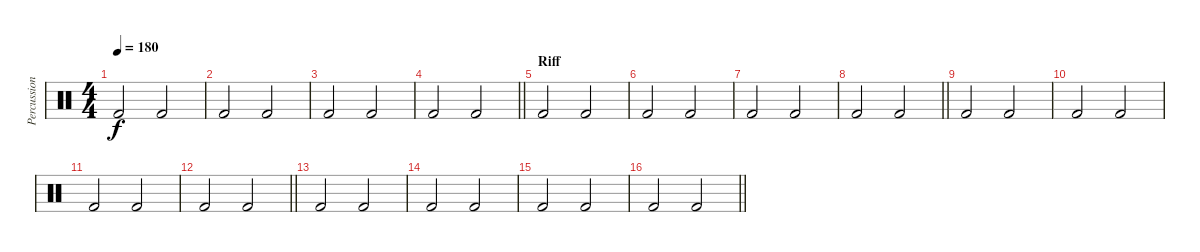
\track ("Percussion" "Percussion") {instrument percussion}
\staff {score}
\articulation defaults
\ts (4 4)
\tempo 180
\clef neutral
\ks c "Kick (hit) 2".2{dy f} "Kick (hit) 2".2
|
"Kick (hit) 2".2 "Kick (hit) 2".2 |
"Kick (hit) 2".2 "Kick (hit) 2".2 |
\barLineRight lightlight "Kick (hit) 2".2 "Kick (hit) 2".2
|
\section ("" "Riff")
"Kick (hit) 2".2 "Kick (hit) 2".2 |
"Kick (hit) 2".2 "Kick (hit) 2".2 |
"Kick (hit) 2".2 "Kick (hit) 2".2 |
\barLineRight lightlight "Kick (hit) 2".2 "Kick (hit) 2".2
|
"Kick (hit) 2".2 "Kick (hit) 2".2 |
"Kick (hit) 2".2 "Kick (hit) 2".2 |
"Kick (hit) 2".2 "Kick (hit) 2".2 |
\barLineRight lightlight "Kick (hit) 2".2 "Kick (hit) 2".2
|
"Kick (hit) 2".2 "Kick (hit) 2".2 |
"Kick (hit) 2".2 "Kick (hit) 2".2 |
"Kick (hit) 2".2 "Kick (hit) 2".2 |
\barLineRight lightlight "Kick (hit) 2".2 "Kick (hit) 2".2
